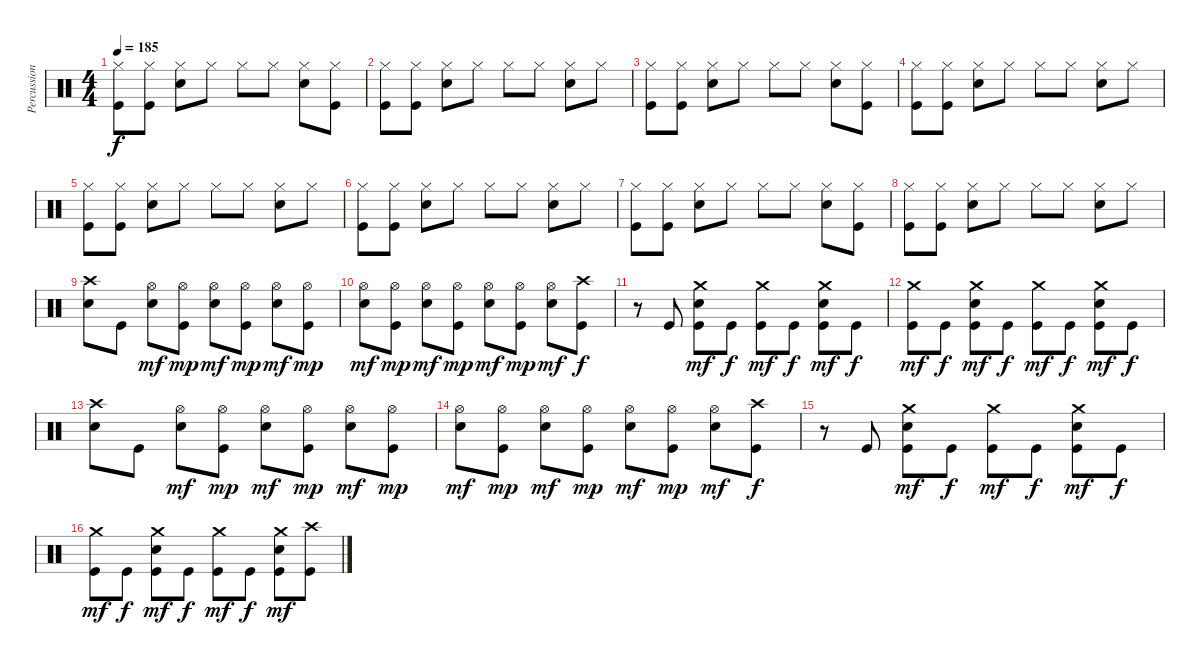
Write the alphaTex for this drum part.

\track ("Percussions" "Percussion") {instrument percussion}
\staff {score}
\articulation defaults
\ts (4 4)
\tempo 185
\clef neutral
\ks c
("Kick (hit)" "Hi-Hat (closed)").8{dy f} ("Kick (hit)" "Hi-Hat (closed)").8 ("Electric Snare (hit)" "Hi-Hat (closed)").8 "Hi-Hat (closed)".8 "Hi-Hat (closed)".8 "Hi-Hat (closed)".8 ("Electric Snare (hit)" "Hi-Hat (closed)").8 ("Kick (hit)" "Hi-Hat (closed)").8 |
("Kick (hit)" "Hi-Hat (closed)").8 ("Kick (hit)" "Hi-Hat (closed)").8 ("Electric Snare (hit)" "Hi-Hat (closed)").8 "Hi-Hat (closed)".8 "Hi-Hat (closed)".8 "Hi-Hat (closed)".8 ("Electric Snare (hit)" "Hi-Hat (closed)").8 "Hi-Hat (closed)".8 |
("Kick (hit)" "Hi-Hat (closed)").8 ("Kick (hit)" "Hi-Hat (closed)").8 ("Electric Snare (hit)" "Hi-Hat (closed)").8 "Hi-Hat (closed)".8 "Hi-Hat (closed)".8 "Hi-Hat (closed)".8 ("Electric Snare (hit)" "Hi-Hat (closed)").8 ("Kick (hit)" "Hi-Hat (closed)").8 |
("Kick (hit)" "Hi-Hat (closed)").8 ("Kick (hit)" "Hi-Hat (closed)").8 ("Electric Snare (hit)" "Hi-Hat (closed)").8 "Hi-Hat (closed)".8 "Hi-Hat (closed)".8 "Hi-Hat (closed)".8 ("Electric Snare (hit)" "Hi-Hat (closed)").8 "Hi-Hat (closed)".8 |
("Kick (hit)" "Hi-Hat (closed)").8 ("Kick (hit)" "Hi-Hat (closed)").8 ("Electric Snare (hit)" "Hi-Hat (closed)").8 "Hi-Hat (closed)".8 "Hi-Hat (closed)".8 "Hi-Hat (closed)".8 ("Electric Snare (hit)" "Hi-Hat (closed)").8 "Hi-Hat (closed)".8 |
("Kick (hit)" "Hi-Hat (closed)").8 ("Kick (hit)" "Hi-Hat (closed)").8 ("Electric Snare (hit)" "Hi-Hat (closed)").8 "Hi-Hat (closed)".8 "Hi-Hat (closed)".8 "Hi-Hat (closed)".8 ("Electric Snare (hit)" "Hi-Hat (closed)").8 "Hi-Hat (closed)".8 |
("Kick (hit)" "Hi-Hat (closed)").8 ("Kick (hit)" "Hi-Hat (closed)").8 ("Electric Snare (hit)" "Hi-Hat (closed)").8 "Hi-Hat (closed)".8 "Hi-Hat (closed)".8 "Hi-Hat (closed)".8 ("Electric Snare (hit)" "Hi-Hat (closed)").8 ("Kick (hit)" "Hi-Hat (closed)").8 |
("Kick (hit)" "Hi-Hat (closed)").8 ("Kick (hit)" "Hi-Hat (closed)").8 ("Electric Snare (hit)" "Hi-Hat (closed)").8 "Hi-Hat (closed)".8 "Hi-Hat (closed)".8 "Hi-Hat (closed)".8 ("Electric Snare (hit)" "Hi-Hat (closed)").8 "Hi-Hat (closed)".8 |
("Electric Snare (hit)" "Crash high (hit)").8 "Kick (hit)".8 ("Electric Snare (hit)" "Hi-Hat (open)").8{dy mf} ("Kick (hit)" "Hi-Hat (open)").8{dy mp} ("Electric Snare (hit)" "Hi-Hat (open)").8{dy mf} ("Kick (hit)" "Hi-Hat (open)").8{dy mp} ("Electric Snare (hit)" "Hi-Hat (open)").8{dy mf} ("Kick (hit)" "Hi-Hat (open)").8{dy mp} |
("Electric Snare (hit)" "Hi-Hat (open)").8{dy mf} ("Kick (hit)" "Hi-Hat (open)").8{dy mp} ("Electric Snare (hit)" "Hi-Hat (open)").8{dy mf} ("Kick (hit)" "Hi-Hat (open)").8{dy mp} ("Electric Snare (hit)" "Hi-Hat (open)").8{dy mf} ("Kick (hit)" "Hi-Hat (open)").8{dy mp} ("Electric Snare (hit)" "Hi-Hat (open)").8{dy mf} ("Kick (hit)" "Crash high (hit)").8{dy f} |
r.8 "Kick (hit)".8 ("Kick (hit)" "Electric Snare (hit)" "Crash medium (hit)").8{dy mf} "Kick (hit)".8{dy f} ("Kick (hit)" "Crash medium (hit)").8{dy mf} "Kick (hit)".8{dy f} ("Kick (hit)" "Electric Snare (hit)" "Crash medium (hit)").8{dy mf} "Kick (hit)".8{dy f} |
("Kick (hit)" "Crash medium (hit)").8{dy mf} "Kick (hit)".8{dy f} ("Kick (hit)" "Electric Snare (hit)" "Crash medium (hit)").8{dy mf} "Kick (hit)".8{dy f} ("Kick (hit)" "Crash medium (hit)").8{dy mf} "Kick (hit)".8{dy f} ("Kick (hit)" "Electric Snare (hit)" "Crash medium (hit)").8{dy mf} "Kick (hit)".8{dy f} |
("Electric Snare (hit)" "Crash high (hit)").8 "Kick (hit)".8 ("Electric Snare (hit)" "Hi-Hat (open)").8{dy mf} ("Kick (hit)" "Hi-Hat (open)").8{dy mp} ("Electric Snare (hit)" "Hi-Hat (open)").8{dy mf} ("Kick (hit)" "Hi-Hat (open)").8{dy mp} ("Electric Snare (hit)" "Hi-Hat (open)").8{dy mf} ("Kick (hit)" "Hi-Hat (open)").8{dy mp} |
("Electric Snare (hit)" "Hi-Hat (open)").8{dy mf} ("Kick (hit)" "Hi-Hat (open)").8{dy mp} ("Electric Snare (hit)" "Hi-Hat (open)").8{dy mf} ("Kick (hit)" "Hi-Hat (open)").8{dy mp} ("Electric Snare (hit)" "Hi-Hat (open)").8{dy mf} ("Kick (hit)" "Hi-Hat (open)").8{dy mp} ("Electric Snare (hit)" "Hi-Hat (open)").8{dy mf} ("Kick (hit)" "Crash high (hit)").8{dy f} |
r.8 "Kick (hit)".8 ("Kick (hit)" "Electric Snare (hit)" "Crash medium (hit)").8{dy mf} "Kick (hit)".8{dy f} ("Kick (hit)" "Crash medium (hit)").8{dy mf} "Kick (hit)".8{dy f} ("Kick (hit)" "Electric Snare (hit)" "Crash medium (hit)").8{dy mf} "Kick (hit)".8{dy f} |
("Kick (hit)" "Crash medium (hit)").8{dy mf} "Kick (hit)".8{dy f} ("Kick (hit)" "Electric Snare (hit)" "Crash medium (hit)").8{dy mf} "Kick (hit)".8{dy f} ("Kick (hit)" "Crash medium (hit)").8{dy mf} "Kick (hit)".8{dy f} ("Kick (hit)" "Electric Snare (hit)" "Crash medium (hit)").8{dy mf} ("Kick (hit)" "Crash high (hit)").8
